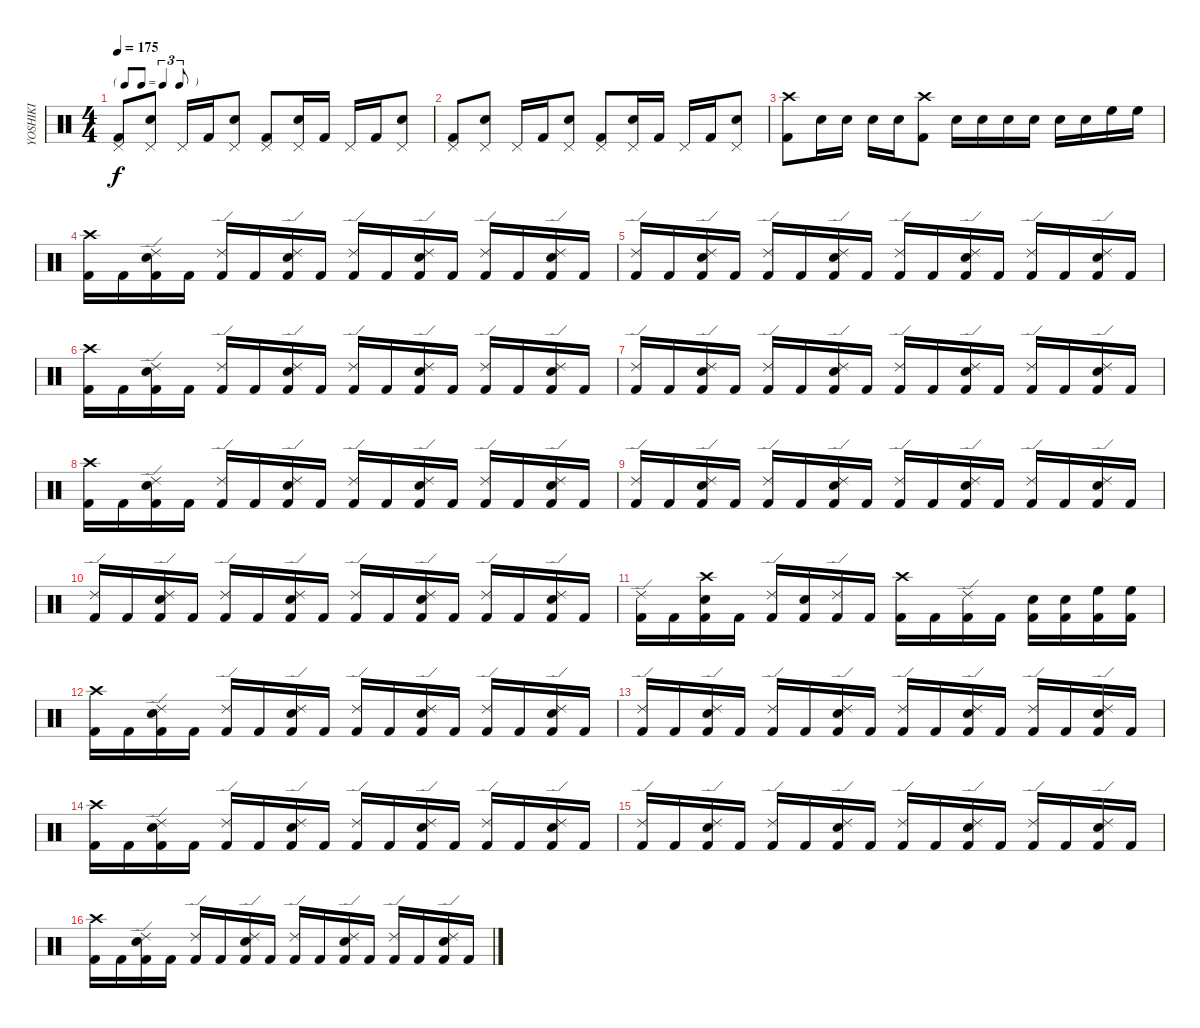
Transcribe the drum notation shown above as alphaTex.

\track ("YOSHIKI" "YOSHIKI") {instrument percussion}
\staff {score}
\articulation defaults
\ts (4 4)
\tf triplet8th
\tempo 175
\clef neutral
\ks c
("Pedal Hi-Hat (hit)" "Kick (hit) 2").8{dy f} ("Pedal Hi-Hat (hit)" "Snare (hit) 2").8 "Pedal Hi-Hat (hit)".16 "Kick (hit) 2".16 ("Pedal Hi-Hat (hit)" "Snare (hit) 2").8 ("Pedal Hi-Hat (hit)" "Kick (hit) 2").8 ("Pedal Hi-Hat (hit)" "Snare (hit) 2").16 "Kick (hit) 2".16 "Pedal Hi-Hat (hit)".16 "Kick (hit) 2".16 ("Pedal Hi-Hat (hit)" "Snare (hit) 2").8 |
("Pedal Hi-Hat (hit)" "Kick (hit) 2").8 ("Pedal Hi-Hat (hit)" "Snare (hit) 2").8 "Pedal Hi-Hat (hit)".16 "Kick (hit) 2".16 ("Pedal Hi-Hat (hit)" "Snare (hit) 2").8 ("Pedal Hi-Hat (hit)" "Kick (hit) 2").8 ("Pedal Hi-Hat (hit)" "Snare (hit) 2").16 "Kick (hit) 2".16 "Pedal Hi-Hat (hit)".16 "Kick (hit) 2".16 ("Pedal Hi-Hat (hit)" "Snare (hit) 2").8 |
("Crash high (hit)" "Kick (hit) 2").8 "Snare (hit) 2".16 "Snare (hit) 2".16 "Snare (hit) 2".16 "Snare (hit) 2".16 ("Crash high (hit)" "Kick (hit) 2").8 "Snare (hit) 2".16 "Snare (hit) 2".16 "Snare (hit) 2".16 "Snare (hit) 2".16 "Snare (hit) 2".16 "Snare (hit) 2".16 "High Floor Tom (hit)".16 "High Floor Tom (hit)".16 |
("Crash high (hit)" "Kick (hit) 2").16 "Kick (hit) 2".16 ("Ride (edge) 2" "Snare (hit) 2" "Kick (hit) 2").16 "Kick (hit) 2".16 ("Ride (edge) 2" "Kick (hit) 2").16 "Kick (hit) 2".16 ("Ride (edge) 2" "Snare (hit) 2" "Kick (hit) 2").16 "Kick (hit) 2".16 ("Ride (edge) 2" "Kick (hit) 2").16 "Kick (hit) 2".16 ("Ride (edge) 2" "Snare (hit) 2" "Kick (hit) 2").16 "Kick (hit) 2".16 ("Ride (edge) 2" "Kick (hit) 2").16 "Kick (hit) 2".16 ("Ride (edge) 2" "Snare (hit) 2" "Kick (hit) 2").16 "Kick (hit) 2".16 |
("Ride (edge) 2" "Kick (hit) 2").16 "Kick (hit) 2".16 ("Ride (edge) 2" "Snare (hit) 2" "Kick (hit) 2").16 "Kick (hit) 2".16 ("Ride (edge) 2" "Kick (hit) 2").16 "Kick (hit) 2".16 ("Ride (edge) 2" "Snare (hit) 2" "Kick (hit) 2").16 "Kick (hit) 2".16 ("Ride (edge) 2" "Kick (hit) 2").16 "Kick (hit) 2".16 ("Ride (edge) 2" "Snare (hit) 2" "Kick (hit) 2").16 "Kick (hit) 2".16 ("Ride (edge) 2" "Kick (hit) 2").16 "Kick (hit) 2".16 ("Ride (edge) 2" "Snare (hit) 2" "Kick (hit) 2").16 "Kick (hit) 2".16 |
("Crash high (hit)" "Kick (hit) 2").16 "Kick (hit) 2".16 ("Ride (edge) 2" "Snare (hit) 2" "Kick (hit) 2").16 "Kick (hit) 2".16 ("Ride (edge) 2" "Kick (hit) 2").16 "Kick (hit) 2".16 ("Ride (edge) 2" "Snare (hit) 2" "Kick (hit) 2").16 "Kick (hit) 2".16 ("Ride (edge) 2" "Kick (hit) 2").16 "Kick (hit) 2".16 ("Ride (edge) 2" "Snare (hit) 2" "Kick (hit) 2").16 "Kick (hit) 2".16 ("Ride (edge) 2" "Kick (hit) 2").16 "Kick (hit) 2".16 ("Ride (edge) 2" "Snare (hit) 2" "Kick (hit) 2").16 "Kick (hit) 2".16 |
("Ride (edge) 2" "Kick (hit) 2").16 "Kick (hit) 2".16 ("Ride (edge) 2" "Snare (hit) 2" "Kick (hit) 2").16 "Kick (hit) 2".16 ("Ride (edge) 2" "Kick (hit) 2").16 "Kick (hit) 2".16 ("Ride (edge) 2" "Snare (hit) 2" "Kick (hit) 2").16 "Kick (hit) 2".16 ("Ride (edge) 2" "Kick (hit) 2").16 "Kick (hit) 2".16 ("Ride (edge) 2" "Snare (hit) 2" "Kick (hit) 2").16 "Kick (hit) 2".16 ("Ride (edge) 2" "Kick (hit) 2").16 "Kick (hit) 2".16 ("Ride (edge) 2" "Snare (hit) 2" "Kick (hit) 2").16 "Kick (hit) 2".16 |
("Crash high (hit)" "Kick (hit) 2").16 "Kick (hit) 2".16 ("Ride (edge) 2" "Snare (hit) 2" "Kick (hit) 2").16 "Kick (hit) 2".16 ("Ride (edge) 2" "Kick (hit) 2").16 "Kick (hit) 2".16 ("Ride (edge) 2" "Snare (hit) 2" "Kick (hit) 2").16 "Kick (hit) 2".16 ("Ride (edge) 2" "Kick (hit) 2").16 "Kick (hit) 2".16 ("Ride (edge) 2" "Snare (hit) 2" "Kick (hit) 2").16 "Kick (hit) 2".16 ("Ride (edge) 2" "Kick (hit) 2").16 "Kick (hit) 2".16 ("Ride (edge) 2" "Snare (hit) 2" "Kick (hit) 2").16 "Kick (hit) 2".16 |
("Ride (edge) 2" "Kick (hit) 2").16 "Kick (hit) 2".16 ("Ride (edge) 2" "Snare (hit) 2" "Kick (hit) 2").16 "Kick (hit) 2".16 ("Ride (edge) 2" "Kick (hit) 2").16 "Kick (hit) 2".16 ("Ride (edge) 2" "Snare (hit) 2" "Kick (hit) 2").16 "Kick (hit) 2".16 ("Ride (edge) 2" "Kick (hit) 2").16 "Kick (hit) 2".16 ("Ride (edge) 2" "Snare (hit) 2" "Kick (hit) 2").16 "Kick (hit) 2".16 ("Ride (edge) 2" "Kick (hit) 2").16 "Kick (hit) 2".16 ("Ride (edge) 2" "Snare (hit) 2" "Kick (hit) 2").16 "Kick (hit) 2".16 |
("Ride (edge) 2" "Kick (hit) 2").16 "Kick (hit) 2".16 ("Ride (edge) 2" "Snare (hit) 2" "Kick (hit) 2").16 "Kick (hit) 2".16 ("Ride (edge) 2" "Kick (hit) 2").16 "Kick (hit) 2".16 ("Ride (edge) 2" "Snare (hit) 2" "Kick (hit) 2").16 "Kick (hit) 2".16 ("Ride (edge) 2" "Kick (hit) 2").16 "Kick (hit) 2".16 ("Ride (edge) 2" "Snare (hit) 2" "Kick (hit) 2").16 "Kick (hit) 2".16 ("Ride (edge) 2" "Kick (hit) 2").16 "Kick (hit) 2".16 ("Ride (edge) 2" "Snare (hit) 2" "Kick (hit) 2").16 "Kick (hit) 2".16 |
("Ride (edge) 2" "Kick (hit) 2").16 "Kick (hit) 2".16 ("Crash high (hit)" "Snare (hit) 2" "Kick (hit) 2").16 "Kick (hit) 2".16 ("Ride (edge) 2" "Kick (hit) 2").16 ("Snare (hit) 2" "Kick (hit) 2").16 ("Ride (edge) 2" "Kick (hit) 2").16 "Kick (hit) 2".16 ("Crash high (hit)" "Kick (hit) 2").16 "Kick (hit) 2".16 ("Ride (edge) 2" "Kick (hit) 2").16 "Kick (hit) 2".16 ("Snare (hit) 2" "Kick (hit) 2").16 ("Snare (hit) 2" "Kick (hit) 2").16 ("High Floor Tom (hit)" "Kick (hit) 2").16 ("High Floor Tom (hit)" "Kick (hit) 2").16 |
("Crash high (hit)" "Kick (hit) 2").16 "Kick (hit) 2".16 ("Ride (edge) 2" "Snare (hit) 2" "Kick (hit) 2").16 "Kick (hit) 2".16 ("Ride (edge) 2" "Kick (hit) 2").16 "Kick (hit) 2".16 ("Ride (edge) 2" "Snare (hit) 2" "Kick (hit) 2").16 "Kick (hit) 2".16 ("Ride (edge) 2" "Kick (hit) 2").16 "Kick (hit) 2".16 ("Ride (edge) 2" "Snare (hit) 2" "Kick (hit) 2").16 "Kick (hit) 2".16 ("Ride (edge) 2" "Kick (hit) 2").16 "Kick (hit) 2".16 ("Ride (edge) 2" "Snare (hit) 2" "Kick (hit) 2").16 "Kick (hit) 2".16 |
("Ride (edge) 2" "Kick (hit) 2").16 "Kick (hit) 2".16 ("Ride (edge) 2" "Snare (hit) 2" "Kick (hit) 2").16 "Kick (hit) 2".16 ("Ride (edge) 2" "Kick (hit) 2").16 "Kick (hit) 2".16 ("Ride (edge) 2" "Snare (hit) 2" "Kick (hit) 2").16 "Kick (hit) 2".16 ("Ride (edge) 2" "Kick (hit) 2").16 "Kick (hit) 2".16 ("Ride (edge) 2" "Snare (hit) 2" "Kick (hit) 2").16 "Kick (hit) 2".16 ("Ride (edge) 2" "Kick (hit) 2").16 "Kick (hit) 2".16 ("Ride (edge) 2" "Snare (hit) 2" "Kick (hit) 2").16 "Kick (hit) 2".16 |
("Crash high (hit)" "Kick (hit) 2").16 "Kick (hit) 2".16 ("Ride (edge) 2" "Snare (hit) 2" "Kick (hit) 2").16 "Kick (hit) 2".16 ("Ride (edge) 2" "Kick (hit) 2").16 "Kick (hit) 2".16 ("Ride (edge) 2" "Snare (hit) 2" "Kick (hit) 2").16 "Kick (hit) 2".16 ("Ride (edge) 2" "Kick (hit) 2").16 "Kick (hit) 2".16 ("Ride (edge) 2" "Snare (hit) 2" "Kick (hit) 2").16 "Kick (hit) 2".16 ("Ride (edge) 2" "Kick (hit) 2").16 "Kick (hit) 2".16 ("Ride (edge) 2" "Snare (hit) 2" "Kick (hit) 2").16 "Kick (hit) 2".16 |
("Ride (edge) 2" "Kick (hit) 2").16 "Kick (hit) 2".16 ("Ride (edge) 2" "Snare (hit) 2" "Kick (hit) 2").16 "Kick (hit) 2".16 ("Ride (edge) 2" "Kick (hit) 2").16 "Kick (hit) 2".16 ("Ride (edge) 2" "Snare (hit) 2" "Kick (hit) 2").16 "Kick (hit) 2".16 ("Ride (edge) 2" "Kick (hit) 2").16 "Kick (hit) 2".16 ("Ride (edge) 2" "Snare (hit) 2" "Kick (hit) 2").16 "Kick (hit) 2".16 ("Ride (edge) 2" "Kick (hit) 2").16 "Kick (hit) 2".16 ("Ride (edge) 2" "Snare (hit) 2" "Kick (hit) 2").16 "Kick (hit) 2".16 |
("Crash high (hit)" "Kick (hit) 2").16 "Kick (hit) 2".16 ("Ride (edge) 2" "Snare (hit) 2" "Kick (hit) 2").16 "Kick (hit) 2".16 ("Ride (edge) 2" "Kick (hit) 2").16 "Kick (hit) 2".16 ("Ride (edge) 2" "Snare (hit) 2" "Kick (hit) 2").16 "Kick (hit) 2".16 ("Ride (edge) 2" "Kick (hit) 2").16 "Kick (hit) 2".16 ("Ride (edge) 2" "Snare (hit) 2" "Kick (hit) 2").16 "Kick (hit) 2".16 ("Ride (edge) 2" "Kick (hit) 2").16 "Kick (hit) 2".16 ("Ride (edge) 2" "Snare (hit) 2" "Kick (hit) 2").16 "Kick (hit) 2".16
